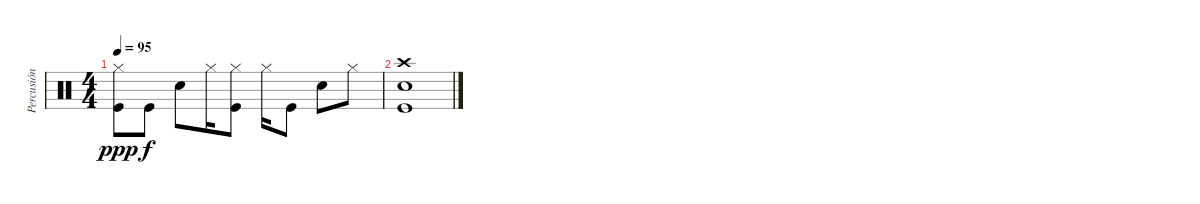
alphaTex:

\track ("Percusión" "Percusión") {instrument percussion}
\staff {score}
\articulation defaults
\ts (4 4)
\tempo 95
\clef neutral
\ks c
("Kick (hit)" "Hi-Hat (closed)").8{dy ppp} "Kick (hit)".8{dy f} "Snare (hit) 2".8 "Hi-Hat (closed)".16 ("Kick (hit)" "Hi-Hat (closed)").8 "Hi-Hat (closed)".16 "Kick (hit)".8 "Snare (hit) 2".8 "Hi-Hat (closed)".8 |
("Crash high (hit)" "Snare (hit) 2" "Kick (hit)").1
